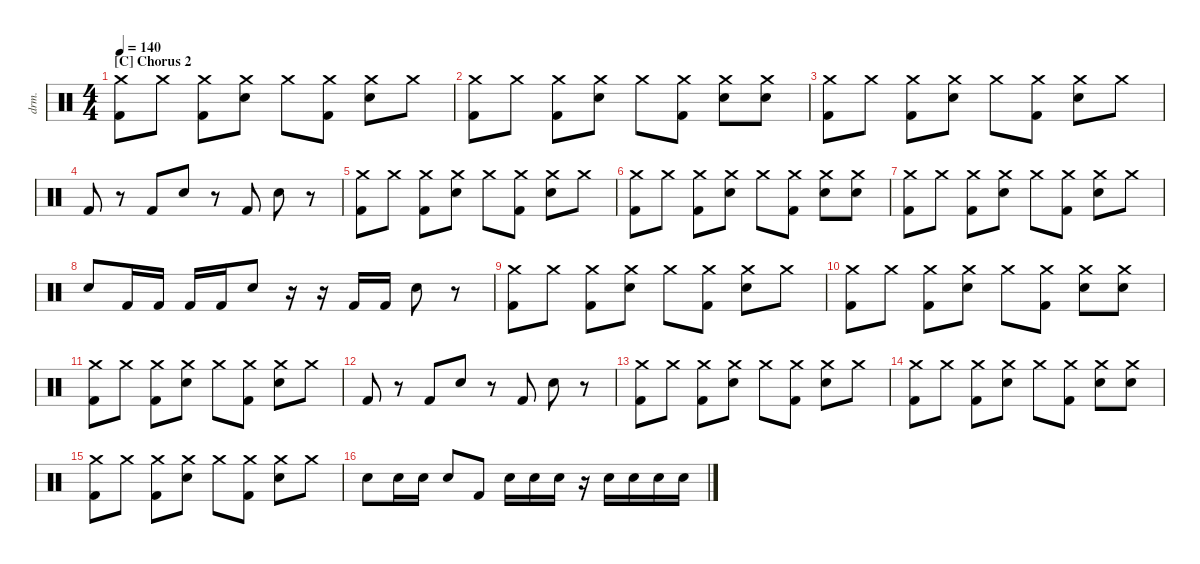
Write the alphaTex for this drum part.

\defaultSystemsLayout 4
\hideDynamics
\bracketExtendMode nobrackets
\otherSystemsTrackNameOrientation horizontal
\track ("Drumkit" "drm.") {instrument percussion}
\staff {score}
\articulation defaults
\ts (4 4)
\section ("C" "Chorus 2")
\tempo 140
\clef neutral
\ks c
("Crash medium (hit)" "Kick (hit) 2").8{dy mf beam Down} "Crash medium (hit)".8{beam Down} ("Crash medium (hit)" "Kick (hit) 2").8{beam Down} ("Snare (hit) 2" "Crash medium (hit)").8{beam Down} "Crash medium (hit)".8{beam Down} ("Crash medium (hit)" "Kick (hit) 2").8{beam Down} ("Crash medium (hit)" "Snare (hit) 2").8{beam Down} "Crash medium (hit)".8{beam Down} |
("Crash medium (hit)" "Kick (hit) 2").8{beam Down} "Crash medium (hit)".8{beam Down} ("Crash medium (hit)" "Kick (hit) 2").8{beam Down} ("Snare (hit) 2" "Crash medium (hit)").8{beam Down} "Crash medium (hit)".8{beam Down} ("Crash medium (hit)" "Kick (hit) 2").8{beam Down} ("Crash medium (hit)" "Snare (hit) 2").8{beam Down} ("Crash medium (hit)" "Snare (hit) 2").8{beam Down} |
("Crash medium (hit)" "Kick (hit) 2").8{beam Down} "Crash medium (hit)".8{beam Down} ("Crash medium (hit)" "Kick (hit) 2").8{beam Down} ("Snare (hit) 2" "Crash medium (hit)").8{beam Down} "Crash medium (hit)".8{beam Down} ("Crash medium (hit)" "Kick (hit) 2").8{beam Down} ("Crash medium (hit)" "Snare (hit) 2").8{beam Down} "Crash medium (hit)".8{beam Down} |
"Kick (hit) 2".8{beam Up} r.8{beam Up} "Kick (hit) 2".8{beam Up} "Snare (hit) 2".8{beam Up} r.8{beam Up} "Kick (hit) 2".8{beam Up} "Snare (hit) 2".8{beam Down} r.8{beam Down} |
("Crash medium (hit)" "Kick (hit) 2").8{beam Down} "Crash medium (hit)".8{beam Down} ("Crash medium (hit)" "Kick (hit) 2").8{beam Down} ("Snare (hit) 2" "Crash medium (hit)").8{beam Down} "Crash medium (hit)".8{beam Down} ("Crash medium (hit)" "Kick (hit) 2").8{beam Down} ("Crash medium (hit)" "Snare (hit) 2").8{beam Down} "Crash medium (hit)".8{beam Down} |
("Crash medium (hit)" "Kick (hit) 2").8{beam Down} "Crash medium (hit)".8{beam Down} ("Crash medium (hit)" "Kick (hit) 2").8{beam Down} ("Snare (hit) 2" "Crash medium (hit)").8{beam Down} "Crash medium (hit)".8{beam Down} ("Crash medium (hit)" "Kick (hit) 2").8{beam Down} ("Crash medium (hit)" "Snare (hit) 2").8{beam Down} ("Crash medium (hit)" "Snare (hit) 2").8{beam Down} |
("Crash medium (hit)" "Kick (hit) 2").8{beam Down} "Crash medium (hit)".8{beam Down} ("Crash medium (hit)" "Kick (hit) 2").8{beam Down} ("Snare (hit) 2" "Crash medium (hit)").8{beam Down} "Crash medium (hit)".8{beam Down} ("Crash medium (hit)" "Kick (hit) 2").8{beam Down} ("Crash medium (hit)" "Snare (hit) 2").8{beam Down} "Crash medium (hit)".8{beam Down} |
"Snare (hit) 2".8{beam Up} "Kick (hit) 2".16{beam Up} "Kick (hit) 2".16{beam Up} "Kick (hit) 2".16{beam Up} "Kick (hit) 2".16{beam Up} "Snare (hit) 2".8{beam Up} r.16{beam Up} r.16{beam Up} "Kick (hit) 2".16{dy f beam Up} "Kick (hit) 2".16{beam Up} "Snare (hit) 2".8{dy mf beam Down} r.8{beam Down} |
("Crash medium (hit)" "Kick (hit) 2").8{beam Down} "Crash medium (hit)".8{beam Down} ("Crash medium (hit)" "Kick (hit) 2").8{beam Down} ("Snare (hit) 2" "Crash medium (hit)").8{beam Down} "Crash medium (hit)".8{beam Down} ("Crash medium (hit)" "Kick (hit) 2").8{beam Down} ("Crash medium (hit)" "Snare (hit) 2").8{beam Down} "Crash medium (hit)".8{beam Down} |
("Crash medium (hit)" "Kick (hit) 2").8{beam Down} "Crash medium (hit)".8{beam Down} ("Crash medium (hit)" "Kick (hit) 2").8{beam Down} ("Snare (hit) 2" "Crash medium (hit)").8{beam Down} "Crash medium (hit)".8{beam Down} ("Crash medium (hit)" "Kick (hit) 2").8{beam Down} ("Crash medium (hit)" "Snare (hit) 2").8{beam Down} ("Crash medium (hit)" "Snare (hit) 2").8{beam Down} |
("Crash medium (hit)" "Kick (hit) 2").8{beam Down} "Crash medium (hit)".8{beam Down} ("Crash medium (hit)" "Kick (hit) 2").8{beam Down} ("Snare (hit) 2" "Crash medium (hit)").8{beam Down} "Crash medium (hit)".8{beam Down} ("Crash medium (hit)" "Kick (hit) 2").8{beam Down} ("Crash medium (hit)" "Snare (hit) 2").8{beam Down} "Crash medium (hit)".8{beam Down} |
"Kick (hit) 2".8{beam Up} r.8{beam Up} "Kick (hit) 2".8{beam Up} "Snare (hit) 2".8{beam Up} r.8{beam Up} "Kick (hit) 2".8{beam Up} "Snare (hit) 2".8{beam Down} r.8{beam Down} |
("Crash medium (hit)" "Kick (hit) 2").8{beam Down} "Crash medium (hit)".8{beam Down} ("Crash medium (hit)" "Kick (hit) 2").8{beam Down} ("Snare (hit) 2" "Crash medium (hit)").8{beam Down} "Crash medium (hit)".8{beam Down} ("Crash medium (hit)" "Kick (hit) 2").8{beam Down} ("Crash medium (hit)" "Snare (hit) 2").8{beam Down} "Crash medium (hit)".8{beam Down} |
("Crash medium (hit)" "Kick (hit) 2").8{beam Down} "Crash medium (hit)".8{beam Down} ("Crash medium (hit)" "Kick (hit) 2").8{beam Down} ("Snare (hit) 2" "Crash medium (hit)").8{beam Down} "Crash medium (hit)".8{beam Down} ("Crash medium (hit)" "Kick (hit) 2").8{beam Down} ("Crash medium (hit)" "Snare (hit) 2").8{beam Down} ("Crash medium (hit)" "Snare (hit) 2").8{beam Down} |
("Crash medium (hit)" "Kick (hit) 2").8{beam Down} "Crash medium (hit)".8{beam Down} ("Crash medium (hit)" "Kick (hit) 2").8{beam Down} ("Snare (hit) 2" "Crash medium (hit)").8{beam Down} "Crash medium (hit)".8{beam Down} ("Crash medium (hit)" "Kick (hit) 2").8{beam Down} ("Crash medium (hit)" "Snare (hit) 2").8{beam Down} "Crash medium (hit)".8{beam Down} |
"Snare (hit) 2".8{beam Down} "Snare (hit) 2".16{beam Down} "Snare (hit) 2".16{beam Down} "Snare (hit) 2".8{beam Up} "Kick (hit) 2".8{beam Up} "Snare (hit) 2".16{beam Down} "Snare (hit) 2".16{beam Down} "Snare (hit) 2".16{beam Down} r.16{beam Down} "Snare (hit) 2".16{beam Down} "Snare (hit) 2".16{beam Down} "Snare (hit) 2".16{beam Down} "Snare (hit) 2".16{beam Down}
